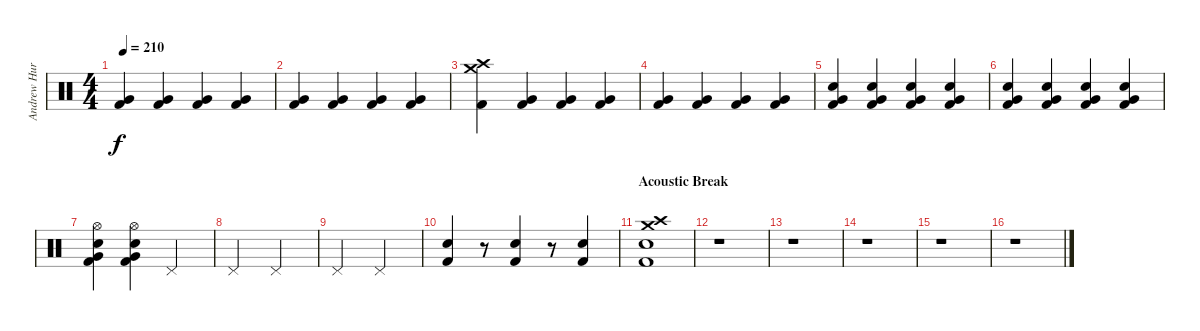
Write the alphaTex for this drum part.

\track ("Andrew Hurley (Drums)" "Andrew Hur") {instrument percussion}
\staff {score}
\articulation defaults
\ts (4 4)
\tempo 210
\clef neutral
\ks c
("Very Low Tom (hit)" "Kick (hit) 2").4{dy f volume 8} ("Very Low Tom (hit)" "Kick (hit) 2").4 ("Very Low Tom (hit)" "Kick (hit) 2").4 ("Very Low Tom (hit)" "Kick (hit) 2").4 |
("Very Low Tom (hit)" "Kick (hit) 2").4 ("Very Low Tom (hit)" "Kick (hit) 2").4 ("Very Low Tom (hit)" "Kick (hit) 2").4 ("Very Low Tom (hit)" "Kick (hit) 2").4 |
("Crash medium (hit)" "Crash high (hit)" "Kick (hit) 2").4 ("Very Low Tom (hit)" "Kick (hit) 2").4 ("Very Low Tom (hit)" "Kick (hit) 2").4 ("Very Low Tom (hit)" "Kick (hit) 2").4 |
("Very Low Tom (hit)" "Kick (hit) 2").4{volume 6} ("Very Low Tom (hit)" "Kick (hit) 2").4 ("Very Low Tom (hit)" "Kick (hit) 2").4 ("Very Low Tom (hit)" "Kick (hit) 2").4 |
("Electric Snare (hit)" "Very Low Tom (hit)" "Kick (hit) 2").4{volume 10} ("Electric Snare (hit)" "Very Low Tom (hit)" "Kick (hit) 2").4 ("Electric Snare (hit)" "Very Low Tom (hit)" "Kick (hit) 2").4 ("Electric Snare (hit)" "Very Low Tom (hit)" "Kick (hit) 2").4 |
("Electric Snare (hit)" "Very Low Tom (hit)" "Kick (hit) 2").4 ("Electric Snare (hit)" "Very Low Tom (hit)" "Kick (hit) 2").4 ("Electric Snare (hit)" "Very Low Tom (hit)" "Kick (hit) 2").4 ("Electric Snare (hit)" "Very Low Tom (hit)" "Kick (hit) 2").4 |
("Hi-Hat (open)" "Electric Snare (hit)" "Very Low Tom (hit)" "Kick (hit) 2").4{volume 10} ("Hi-Hat (open)" "Electric Snare (hit)" "Very Low Tom (hit)" "Kick (hit) 2").4 "Pedal Hi-Hat (hit)".2 |
"Pedal Hi-Hat (hit)".2 "Pedal Hi-Hat (hit)".2 |
"Pedal Hi-Hat (hit)".2 "Pedal Hi-Hat (hit)".2 |
("Electric Snare (hit)" "Kick (hit) 2").4 r.8 ("Electric Snare (hit)" "Kick (hit) 2").4 r.8 ("Electric Snare (hit)" "Kick (hit) 2").4 |
\section ("" "Acoustic Break")
("Crash high (hit)" "Crash medium (hit)" "Electric Snare (hit)" "Kick (hit) 2").1 |
r.1 |
r.1 |
r.1 |
r.1 |
r.1
